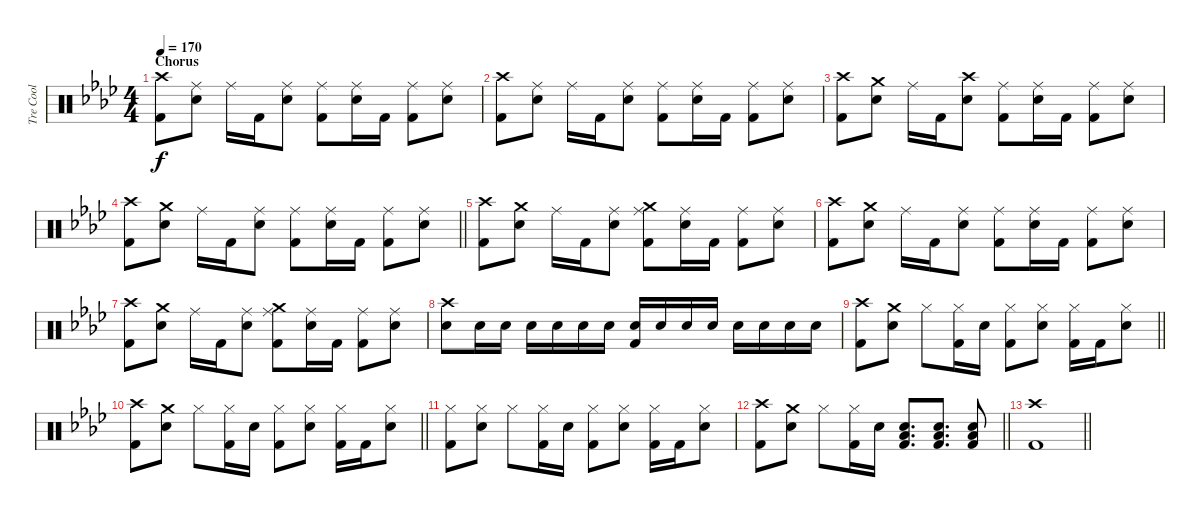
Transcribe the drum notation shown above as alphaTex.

\track ("Tre Cool" "Tre Cool") {instrument percussion}
\staff {score}
\articulation defaults
\ts (4 4)
\section ("" "Chorus")
\tempo 170
\clef neutral
\ks ab
("Crash high (hit)" "Kick (hit) 2").8{dy f} ("Ride (middle)" "Snare (hit) 2").8 "Ride (middle)".16 "Kick (hit) 2".16 ("Ride (middle)" "Snare (hit) 2").8 ("Ride (middle)" "Kick (hit) 2").8 ("Ride (middle)" "Snare (hit) 2").16 "Kick (hit) 2".16 ("Ride (middle)" "Kick (hit) 2").8 ("Ride (middle)" "Snare (hit) 2").8 |
("Crash high (hit)" "Kick (hit) 2").8 ("Ride (middle)" "Snare (hit) 2").8 "Ride (middle)".16 "Kick (hit) 2".16 ("Ride (middle)" "Snare (hit) 2").8 ("Ride (middle)" "Kick (hit) 2").8 ("Ride (middle)" "Snare (hit) 2").16 "Kick (hit) 2".16 ("Ride (middle)" "Kick (hit) 2").8 ("Ride (middle)" "Snare (hit) 2").8 |
("Crash high (hit)" "Kick (hit) 2").8 ("Crash medium (hit)" "Snare (hit) 2").8 "Ride (middle)".16 "Kick (hit) 2".16 ("Crash high (hit)" "Snare (hit) 2").8 ("Ride (middle)" "Kick (hit) 2").8 ("Ride (middle)" "Snare (hit) 2").16 "Kick (hit) 2".16 ("Ride (middle)" "Kick (hit) 2").8 ("Ride (middle)" "Snare (hit) 2").8 |
\barLineRight lightlight
("Crash high (hit)" "Kick (hit) 2").8 ("Crash medium (hit)" "Snare (hit) 2").8 "Ride (middle)".16 "Kick (hit) 2".16 ("Ride (middle)" "Snare (hit) 2").8 ("Ride (middle)" "Kick (hit) 2").8 ("Ride (middle)" "Snare (hit) 2").16 "Kick (hit) 2".16 ("Ride (middle)" "Kick (hit) 2").8 ("Ride (middle)" "Snare (hit) 2").8 |
("Crash high (hit)" "Kick (hit) 2").8 ("Crash medium (hit)" "Snare (hit) 2").8 "Ride (middle)".16 "Kick (hit) 2".16 ("Ride (middle)" "Snare (hit) 2").8 ("Crash medium (hit)" "Ride (middle)" "Kick (hit) 2").8 ("Ride (middle)" "Snare (hit) 2").16 "Kick (hit) 2".16 ("Ride (middle)" "Kick (hit) 2").8 ("Ride (middle)" "Snare (hit) 2").8 |
("Crash high (hit)" "Kick (hit) 2").8 ("Crash medium (hit)" "Snare (hit) 2").8 "Ride (middle)".16 "Kick (hit) 2".16 ("Ride (middle)" "Snare (hit) 2").8 ("Ride (middle)" "Kick (hit) 2").8 ("Ride (middle)" "Snare (hit) 2").16 "Kick (hit) 2".16 ("Ride (middle)" "Kick (hit) 2").8 ("Ride (middle)" "Snare (hit) 2").8 |
("Crash high (hit)" "Kick (hit) 2").8 ("Crash medium (hit)" "Snare (hit) 2").8 "Ride (middle)".16 "Kick (hit) 2".16 ("Ride (middle)" "Snare (hit) 2").8 ("Crash medium (hit)" "Ride (middle)" "Kick (hit) 2").8 ("Ride (middle)" "Snare (hit) 2").16 "Kick (hit) 2".16 ("Ride (middle)" "Kick (hit) 2").8 ("Ride (middle)" "Snare (hit) 2").8 |
("Snare (hit) 2" "Crash high (hit)").8 "Snare (hit) 2".16 "Snare (hit) 2".16 "Snare (hit) 2".16 "Snare (hit) 2".16 "Snare (hit) 2".16 "Snare (hit) 2".16 ("Snare (hit) 2" "Kick (hit) 2").16 "Snare (hit) 2".16 "Snare (hit) 2".16 "Snare (hit) 2".16 "Snare (hit) 2".16 "Snare (hit) 2".16 "Snare (hit) 2".16 "Snare (hit) 2".16 |
\barLineRight lightlight
("Crash high (hit)" "Kick (hit) 2").8 ("Crash medium (hit)" "Snare (hit) 2").8 "Hi-Hat (closed)".8 ("Hi-Hat (closed)" "Kick (hit) 2").16 "Snare (hit) 2".16 ("Hi-Hat (closed)" "Kick (hit) 2").8 ("Hi-Hat (closed)" "Snare (hit) 2").8 ("Hi-Hat (closed)" "Kick (hit) 2").16 "Kick (hit) 2".16 ("Hi-Hat (closed)" "Snare (hit) 2").8 |
\barLineRight lightlight
("Crash high (hit)" "Kick (hit) 2").8 ("Crash medium (hit)" "Snare (hit) 2").8 "Hi-Hat (closed)".8 ("Hi-Hat (closed)" "Kick (hit) 2").16 "Snare (hit) 2".16 ("Hi-Hat (closed)" "Kick (hit) 2").8 ("Hi-Hat (closed)" "Snare (hit) 2").8 ("Hi-Hat (closed)" "Kick (hit) 2").16 "Kick (hit) 2".16 ("Hi-Hat (closed)" "Snare (hit) 2").8 |
("Hi-Hat (closed)" "Kick (hit) 2").8 ("Hi-Hat (closed)" "Snare (hit) 2").8 "Hi-Hat (closed)".8 ("Hi-Hat (closed)" "Kick (hit) 2").16 "Snare (hit) 2".16 ("Hi-Hat (closed)" "Kick (hit) 2").8 ("Hi-Hat (closed)" "Snare (hit) 2").8 ("Hi-Hat (closed)" "Kick (hit) 2").16 "Kick (hit) 2".16 ("Hi-Hat (closed)" "Snare (hit) 2").8 |
\barLineRight lightlight
("Crash high (hit)" "Kick (hit) 2").8 ("Crash medium (hit)" "Snare (hit) 2").8 "Hi-Hat (closed)".8 ("Hi-Hat (closed)" "Kick (hit) 2").16 "Snare (hit) 2".16 ("Snare (hit) 2" "Low Tom (hit)" "Kick (hit) 2").8{d} ("Snare (hit) 2" "Low Tom (hit)" "Kick (hit) 2").8{d} ("Snare (hit) 2" "Low Tom (hit)" "Kick (hit) 2").8 |
\barLineRight lightlight
("Crash high (hit)" "Kick (hit) 2").1
